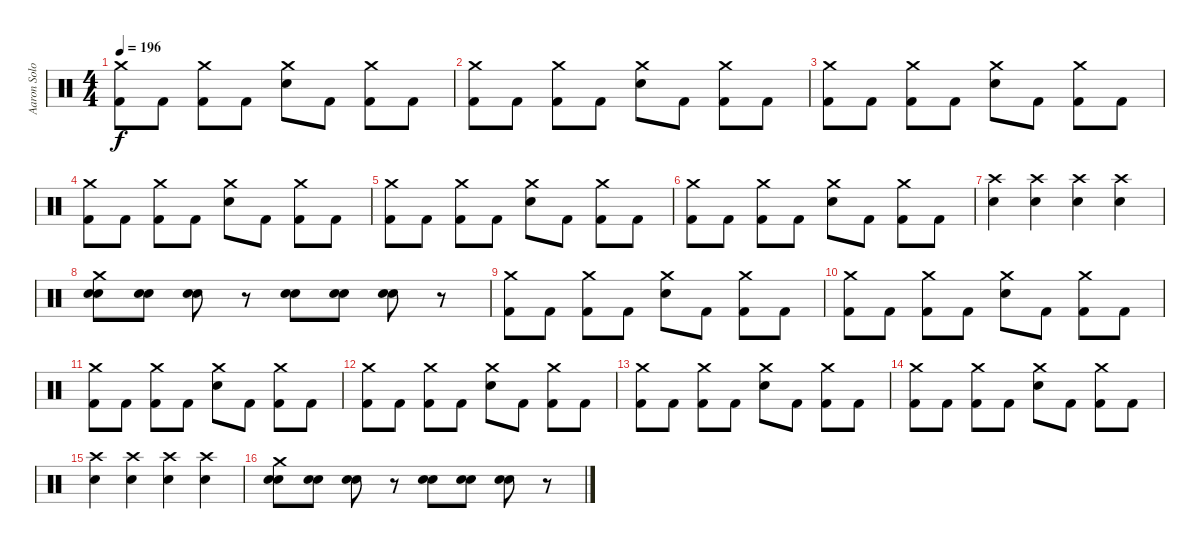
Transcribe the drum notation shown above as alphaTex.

\track ("Aaron Solowoniuk" "Aaron Solo") {instrument percussion}
\staff {score}
\articulation defaults
\ts (4 4)
\tempo 196
\clef neutral
\ks c
("Crash medium (hit)" "Kick (hit) 2").8{dy f} "Kick (hit) 2".8 ("Crash medium (hit)" "Kick (hit) 2").8 "Kick (hit) 2".8 ("Crash medium (hit)" "Electric Snare (hit)").8 "Kick (hit) 2".8 ("Crash medium (hit)" "Kick (hit) 2").8 "Kick (hit) 2".8 |
("Crash medium (hit)" "Kick (hit) 2").8 "Kick (hit) 2".8 ("Crash medium (hit)" "Kick (hit) 2").8 "Kick (hit) 2".8 ("Crash medium (hit)" "Electric Snare (hit)").8 "Kick (hit) 2".8 ("Crash medium (hit)" "Kick (hit) 2").8 "Kick (hit) 2".8 |
("Crash medium (hit)" "Kick (hit) 2").8 "Kick (hit) 2".8 ("Crash medium (hit)" "Kick (hit) 2").8 "Kick (hit) 2".8 ("Crash medium (hit)" "Electric Snare (hit)").8 "Kick (hit) 2".8 ("Crash medium (hit)" "Kick (hit) 2").8 "Kick (hit) 2".8 |
("Crash medium (hit)" "Kick (hit) 2").8 "Kick (hit) 2".8 ("Crash medium (hit)" "Kick (hit) 2").8 "Kick (hit) 2".8 ("Crash medium (hit)" "Electric Snare (hit)").8 "Kick (hit) 2".8 ("Crash medium (hit)" "Kick (hit) 2").8 "Kick (hit) 2".8 |
("Crash medium (hit)" "Kick (hit) 2").8 "Kick (hit) 2".8 ("Crash medium (hit)" "Kick (hit) 2").8 "Kick (hit) 2".8 ("Crash medium (hit)" "Electric Snare (hit)").8 "Kick (hit) 2".8 ("Crash medium (hit)" "Kick (hit) 2").8 "Kick (hit) 2".8 |
("Crash medium (hit)" "Kick (hit) 2").8 "Kick (hit) 2".8 ("Crash medium (hit)" "Kick (hit) 2").8 "Kick (hit) 2".8 ("Crash medium (hit)" "Electric Snare (hit)").8 "Kick (hit) 2".8 ("Crash medium (hit)" "Kick (hit) 2").8 "Kick (hit) 2".8 |
("Crash high (hit)" "Electric Snare (hit)").4 ("Crash high (hit)" "Electric Snare (hit)").4 ("Crash high (hit)" "Electric Snare (hit)").4 ("Crash high (hit)" "Electric Snare (hit)").4 |
("Crash medium (hit)" "Electric Snare (hit)" "Electric Snare (hit)").8 ("Electric Snare (hit)" "Electric Snare (hit)").8 ("Electric Snare (hit)" "Electric Snare (hit)").8 r.8 ("Electric Snare (hit)" "Electric Snare (hit)").8 ("Electric Snare (hit)" "Electric Snare (hit)").8 ("Electric Snare (hit)" "Electric Snare (hit)").8 r.8 |
("Crash medium (hit)" "Kick (hit) 2").8 "Kick (hit) 2".8 ("Crash medium (hit)" "Kick (hit) 2").8 "Kick (hit) 2".8 ("Crash medium (hit)" "Electric Snare (hit)").8 "Kick (hit) 2".8 ("Crash medium (hit)" "Kick (hit) 2").8 "Kick (hit) 2".8 |
("Crash medium (hit)" "Kick (hit) 2").8 "Kick (hit) 2".8 ("Crash medium (hit)" "Kick (hit) 2").8 "Kick (hit) 2".8 ("Crash medium (hit)" "Electric Snare (hit)").8 "Kick (hit) 2".8 ("Crash medium (hit)" "Kick (hit) 2").8 "Kick (hit) 2".8 |
("Crash medium (hit)" "Kick (hit) 2").8 "Kick (hit) 2".8 ("Crash medium (hit)" "Kick (hit) 2").8 "Kick (hit) 2".8 ("Crash medium (hit)" "Electric Snare (hit)").8 "Kick (hit) 2".8 ("Crash medium (hit)" "Kick (hit) 2").8 "Kick (hit) 2".8 |
("Crash medium (hit)" "Kick (hit) 2").8 "Kick (hit) 2".8 ("Crash medium (hit)" "Kick (hit) 2").8 "Kick (hit) 2".8 ("Crash medium (hit)" "Electric Snare (hit)").8 "Kick (hit) 2".8 ("Crash medium (hit)" "Kick (hit) 2").8 "Kick (hit) 2".8 |
("Crash medium (hit)" "Kick (hit) 2").8 "Kick (hit) 2".8 ("Crash medium (hit)" "Kick (hit) 2").8 "Kick (hit) 2".8 ("Crash medium (hit)" "Electric Snare (hit)").8 "Kick (hit) 2".8 ("Crash medium (hit)" "Kick (hit) 2").8 "Kick (hit) 2".8 |
("Crash medium (hit)" "Kick (hit) 2").8 "Kick (hit) 2".8 ("Crash medium (hit)" "Kick (hit) 2").8 "Kick (hit) 2".8 ("Crash medium (hit)" "Electric Snare (hit)").8 "Kick (hit) 2".8 ("Crash medium (hit)" "Kick (hit) 2").8 "Kick (hit) 2".8 |
("Crash high (hit)" "Electric Snare (hit)").4 ("Crash high (hit)" "Electric Snare (hit)").4 ("Crash high (hit)" "Electric Snare (hit)").4 ("Crash high (hit)" "Electric Snare (hit)").4 |
("Crash medium (hit)" "Electric Snare (hit)" "Electric Snare (hit)").8 ("Electric Snare (hit)" "Electric Snare (hit)").8 ("Electric Snare (hit)" "Electric Snare (hit)").8 r.8 ("Electric Snare (hit)" "Electric Snare (hit)").8 ("Electric Snare (hit)" "Electric Snare (hit)").8 ("Electric Snare (hit)" "Electric Snare (hit)").8 r.8
